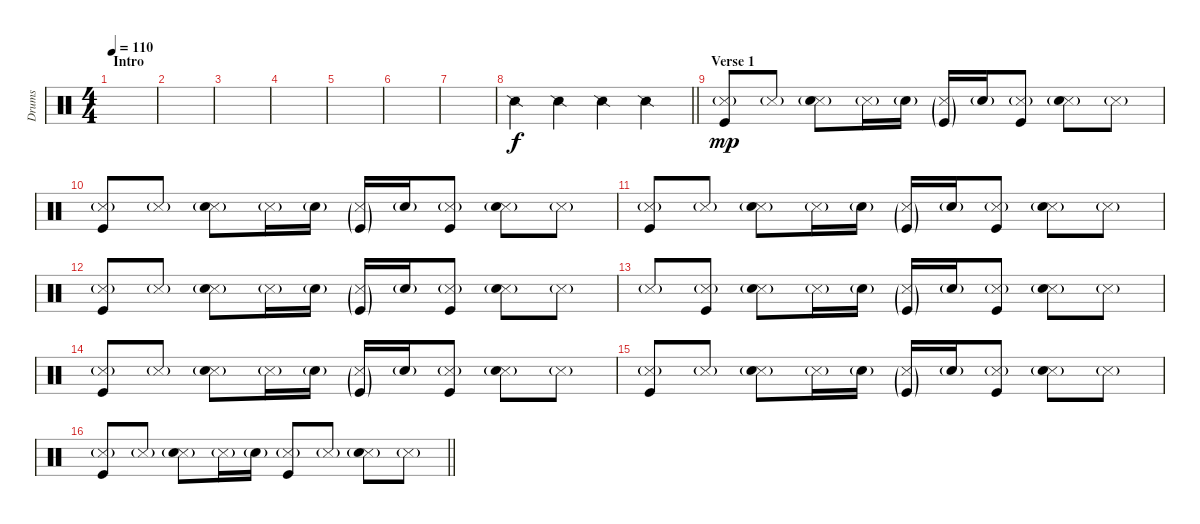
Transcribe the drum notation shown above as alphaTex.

\track ("Drums" "Drums") {instrument percussion}
\staff {score}
\articulation defaults
\ts (4 4)
\section ("" "Intro")
\tempo 110
\clef neutral
\ks c
|
|
|
|
|
|
|
\barLineRight lightlight "Snare (side stick) 2".4 "Snare (side stick) 2".4 "Snare (side stick) 2".4 "Snare (side stick) 2".4
|
\section ("" "Verse 1")
("Snare (side stick) 3"{g} "Kick (hit)").8{dy mp} "Snare (side stick) 3"{g}.8 ("Snare (side stick) 3"{g} "Electric Snare (hit)").8 "Snare (side stick) 3"{g}.16 "Electric Snare (hit)"{g}.16 ("Snare (side stick) 3"{g} "Kick (hit)"{g}).16 "Electric Snare (hit)"{g}.16 ("Snare (side stick) 3"{g} "Kick (hit)").8 ("Snare (side stick) 3"{g} "Electric Snare (hit)").8 "Snare (side stick) 3"{g}.8 |
("Snare (side stick) 3"{g} "Kick (hit)").8 "Snare (side stick) 3"{g}.8 ("Snare (side stick) 3"{g} "Electric Snare (hit)").8 "Snare (side stick) 3"{g}.16 "Electric Snare (hit)"{g}.16 ("Snare (side stick) 3"{g} "Kick (hit)"{g}).16 "Electric Snare (hit)"{g}.16 ("Snare (side stick) 3"{g} "Kick (hit)").8 ("Snare (side stick) 3"{g} "Electric Snare (hit)").8 "Snare (side stick) 3"{g}.8 |
("Snare (side stick) 3"{g} "Kick (hit)").8 "Snare (side stick) 3"{g}.8 ("Snare (side stick) 3"{g} "Electric Snare (hit)").8 "Snare (side stick) 3"{g}.16 "Electric Snare (hit)"{g}.16 ("Snare (side stick) 3"{g} "Kick (hit)"{g}).16 "Electric Snare (hit)"{g}.16 ("Snare (side stick) 3"{g} "Kick (hit)").8 ("Snare (side stick) 3"{g} "Electric Snare (hit)").8 "Snare (side stick) 3"{g}.8 |
("Snare (side stick) 3"{g} "Kick (hit)").8 "Snare (side stick) 3"{g}.8 ("Snare (side stick) 3"{g} "Electric Snare (hit)").8 "Snare (side stick) 3"{g}.16 "Electric Snare (hit)"{g}.16 ("Snare (side stick) 3"{g} "Kick (hit)"{g}).16 "Electric Snare (hit)"{g}.16 ("Snare (side stick) 3"{g} "Kick (hit)").8 ("Snare (side stick) 3"{g} "Electric Snare (hit)").8 "Snare (side stick) 3"{g}.8 |
"Snare (side stick) 3"{g}.8 ("Snare (side stick) 3"{g} "Kick (hit)").8 ("Snare (side stick) 3"{g} "Electric Snare (hit)").8 "Snare (side stick) 3"{g}.16 "Electric Snare (hit)"{g}.16 ("Snare (side stick) 3"{g} "Kick (hit)"{g}).16 "Electric Snare (hit)"{g}.16 ("Snare (side stick) 3"{g} "Kick (hit)").8 ("Snare (side stick) 3"{g} "Electric Snare (hit)").8 "Snare (side stick) 3"{g}.8 |
("Snare (side stick) 3"{g} "Kick (hit)").8 "Snare (side stick) 3"{g}.8 ("Snare (side stick) 3"{g} "Electric Snare (hit)").8 "Snare (side stick) 3"{g}.16 "Electric Snare (hit)"{g}.16 ("Snare (side stick) 3"{g} "Kick (hit)"{g}).16 "Electric Snare (hit)"{g}.16 ("Snare (side stick) 3"{g} "Kick (hit)").8 ("Snare (side stick) 3"{g} "Electric Snare (hit)").8 "Snare (side stick) 3"{g}.8 |
("Snare (side stick) 3"{g} "Kick (hit)").8 "Snare (side stick) 3"{g}.8 ("Snare (side stick) 3"{g} "Electric Snare (hit)").8 "Snare (side stick) 3"{g}.16 "Electric Snare (hit)"{g}.16 ("Snare (side stick) 3"{g} "Kick (hit)"{g}).16 "Electric Snare (hit)"{g}.16 ("Snare (side stick) 3"{g} "Kick (hit)").8 ("Snare (side stick) 3"{g} "Electric Snare (hit)").8 "Snare (side stick) 3"{g}.8 |
\barLineRight lightlight
("Snare (side stick) 3"{g} "Kick (hit)").8 "Snare (side stick) 3"{g}.8 ("Snare (side stick) 3"{g} "Electric Snare (hit)").8 "Snare (side stick) 3"{g}.16 "Electric Snare (hit)"{g}.16 ("Snare (side stick) 3"{g} "Kick (hit)").8 "Snare (side stick) 3"{g}.8 ("Snare (side stick) 3"{g} "Electric Snare (hit)").8 "Snare (side stick) 3"{g}.8
